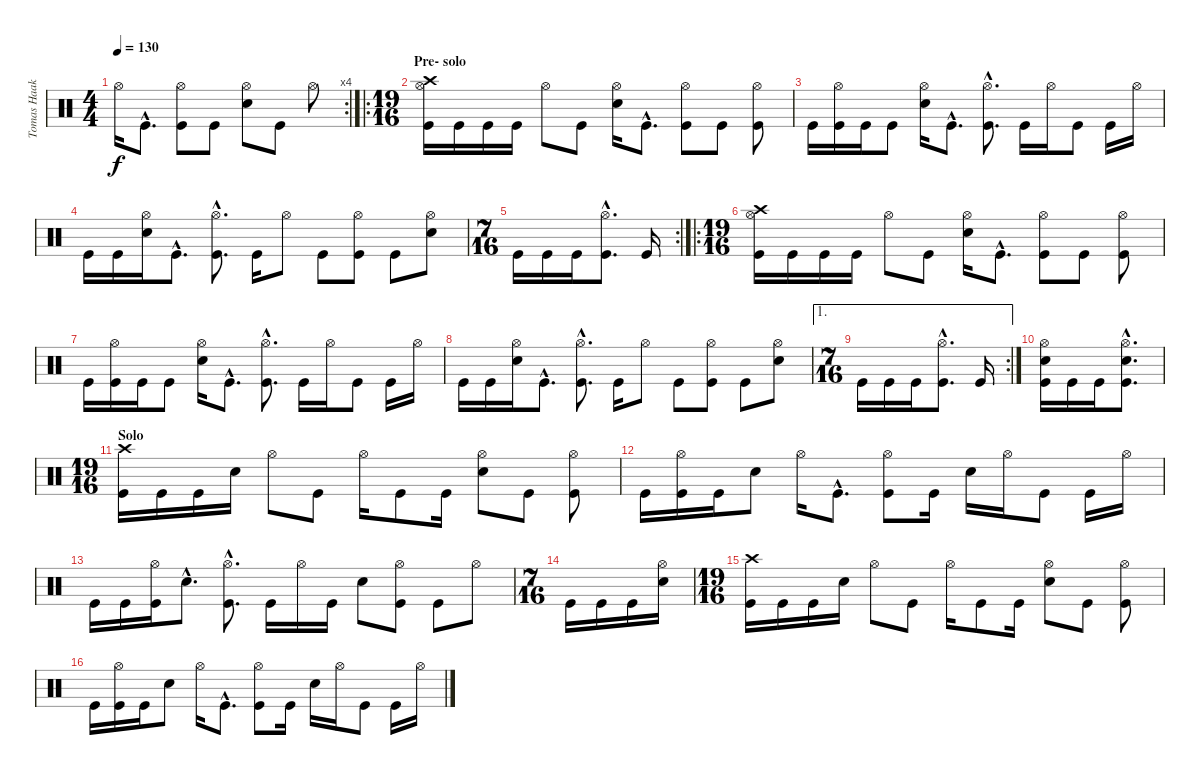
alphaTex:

\track ("Tomas Haake - Drums" "Tomas Haak") {instrument percussion}
\staff {score}
\articulation defaults
\rc 4
\ts (4 4)
\tempo 130
\clef neutral
\ks c "Hi-Hat (open)".16{dy f} "Kick (hit)"{hac}.8{d}
("Hi-Hat (open)" "Kick (hit)").8 "Kick (hit)".8 ("Hi-Hat (open)" "Electric Snare (hit)").8 "Kick (hit)".8 "Hi-Hat (open)".8 |
\ro
\ts (19 16)
\section ("" "Pre- solo")
("Hi-Hat (open)" "Crash high (hit)" "Kick (hit)").16 "Kick (hit)".16 "Kick (hit)".16 "Kick (hit)".16 "Hi-Hat (open)".8 "Kick (hit)".8 ("Hi-Hat (open)" "Electric Snare (hit)").16 "Kick (hit)"{hac}.8{d} ("Hi-Hat (open)" "Kick (hit)").8 "Kick (hit)".8 ("Hi-Hat (open)" "Kick (hit)").8 |
"Kick (hit)".16 ("Hi-Hat (open)" "Kick (hit)").16 "Kick (hit)".16 "Kick (hit)".8 ("Hi-Hat (open)" "Electric Snare (hit)").16 "Kick (hit)"{hac}.8{d} ("Hi-Hat (open)"{hac} "Kick (hit)"{hac}).8{d} "Kick (hit)".16 "Hi-Hat (open)".16 "Kick (hit)".8 "Kick (hit)".16 "Hi-Hat (open)".16 |
"Kick (hit)".16 "Kick (hit)".16 ("Hi-Hat (open)" "Electric Snare (hit)").16 "Kick (hit)"{hac}.8{d} ("Hi-Hat (open)"{hac} "Kick (hit)"{hac}).8{d} "Kick (hit)".16 "Hi-Hat (open)".8 "Kick (hit)".8 ("Hi-Hat (open)" "Kick (hit)").8 "Kick (hit)".8 ("Hi-Hat (open)" "Electric Snare (hit)").8 |
\rc 2
\ts (7 16)
"Kick (hit)".16 "Kick (hit)".16 "Kick (hit)".16 ("Hi-Hat (open)"{hac} "Kick (hit)"{hac}).8{d} "Kick (hit)".16 |
\ro
\ts (19 16)
("Hi-Hat (open)" "Crash high (hit)" "Kick (hit)").16 "Kick (hit)".16 "Kick (hit)".16 "Kick (hit)".16 "Hi-Hat (open)".8 "Kick (hit)".8 ("Hi-Hat (open)" "Electric Snare (hit)").16 "Kick (hit)"{hac}.8{d} ("Hi-Hat (open)" "Kick (hit)").8 "Kick (hit)".8 ("Hi-Hat (open)" "Kick (hit)").8 |
"Kick (hit)".16 ("Hi-Hat (open)" "Kick (hit)").16 "Kick (hit)".16 "Kick (hit)".8 ("Hi-Hat (open)" "Electric Snare (hit)").16 "Kick (hit)"{hac}.8{d} ("Hi-Hat (open)"{hac} "Kick (hit)"{hac}).8{d} "Kick (hit)".16 "Hi-Hat (open)".16 "Kick (hit)".8 "Kick (hit)".16 "Hi-Hat (open)".16 |
"Kick (hit)".16 "Kick (hit)".16 ("Hi-Hat (open)" "Electric Snare (hit)").16 "Kick (hit)"{hac}.8{d} ("Hi-Hat (open)"{hac} "Kick (hit)"{hac}).8{d} "Kick (hit)".16 "Hi-Hat (open)".8 "Kick (hit)".8 ("Hi-Hat (open)" "Kick (hit)").8 "Kick (hit)".8 ("Hi-Hat (open)" "Electric Snare (hit)").8 |
\ae 1
\rc 2
\ts (7 16)
"Kick (hit)".16 "Kick (hit)".16 "Kick (hit)".16 ("Hi-Hat (open)"{hac} "Kick (hit)"{hac}).8{d} "Kick (hit)".16 |
("Hi-Hat (open)" "Electric Snare (hit)" "Kick (hit)").16 "Kick (hit)".16 "Kick (hit)".16 ("Hi-Hat (open)"{hac} "Electric Snare (hit)"{hac} "Kick (hit)"{hac}).8{d} |
\ts (19 16)
\section ("" "Solo")
("Crash high (hit)" "Kick (hit)").16 "Kick (hit)".16 "Kick (hit)".16 "Electric Snare (hit)".16 "Hi-Hat (open)".8 "Kick (hit)".8 "Hi-Hat (open)".16 "Kick (hit)".8 "Kick (hit)".16 ("Hi-Hat (open)" "Electric Snare (hit)").8 "Kick (hit)".8 ("Hi-Hat (open)" "Kick (hit)").8 |
"Kick (hit)".16 ("Hi-Hat (open)" "Kick (hit)").16 "Kick (hit)".16 "Electric Snare (hit)".8 "Hi-Hat (open)".16 "Kick (hit)"{hac}.8{d} ("Hi-Hat (open)" "Kick (hit)").8 "Kick (hit)".16 "Electric Snare (hit)".16 "Hi-Hat (open)".16 "Kick (hit)".8 "Kick (hit)".16 "Hi-Hat (open)".16 |
"Kick (hit)".16 "Kick (hit)".16 ("Hi-Hat (open)" "Kick (hit)").16 "Electric Snare (hit)"{hac}.8{d} ("Hi-Hat (open)"{hac} "Kick (hit)"{hac}).8{d} "Kick (hit)".16 "Hi-Hat (open)".16 "Kick (hit)".16 "Electric Snare (hit)".8 ("Hi-Hat (open)" "Kick (hit)").8 "Kick (hit)".8 "Hi-Hat (open)".8 |
\ts (7 16)
"Kick (hit)".16 "Kick (hit)".16 "Kick (hit)".16 ("Hi-Hat (open)" "Electric Snare (hit)").16 |
\ts (19 16)
("Crash high (hit)" "Kick (hit)").16 "Kick (hit)".16 "Kick (hit)".16 "Electric Snare (hit)".16 "Hi-Hat (open)".8 "Kick (hit)".8 "Hi-Hat (open)".16 "Kick (hit)".8 "Kick (hit)".16 ("Hi-Hat (open)" "Electric Snare (hit)").8 "Kick (hit)".8 ("Hi-Hat (open)" "Kick (hit)").8 |
"Kick (hit)".16 ("Hi-Hat (open)" "Kick (hit)").16 "Kick (hit)".16 "Electric Snare (hit)".8 "Hi-Hat (open)".16 "Kick (hit)"{hac}.8{d} ("Hi-Hat (open)" "Kick (hit)").8 "Kick (hit)".16 "Electric Snare (hit)".16 "Hi-Hat (open)".16 "Kick (hit)".8 "Kick (hit)".16 "Hi-Hat (open)".16
